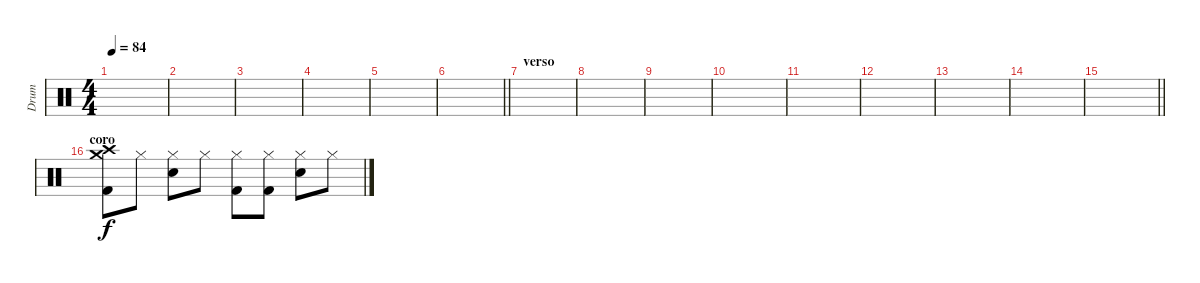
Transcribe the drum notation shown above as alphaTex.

\track ("Drum" "Drum") {instrument percussion}
\staff {score}
\articulation defaults
\ts (4 4)
\tempo 84
\clef neutral
\ks c
|
|
|
|
|
\barLineRight lightlight
|
\section ("" "verso")
|
|
|
|
|
|
|
|
\barLineRight lightlight
|
\section ("" "coro")
("Crash high (hit)" "Crash medium (hit)" "Kick (hit) 2").8 "Hi-Hat (closed)".8 ("Hi-Hat (closed)" "Electric Snare (hit)").8 "Hi-Hat (closed)".8 ("Hi-Hat (closed)" "Kick (hit) 2").8 ("Hi-Hat (closed)" "Kick (hit) 2").8 ("Hi-Hat (closed)" "Electric Snare (hit)").8 "Hi-Hat (closed)".8
